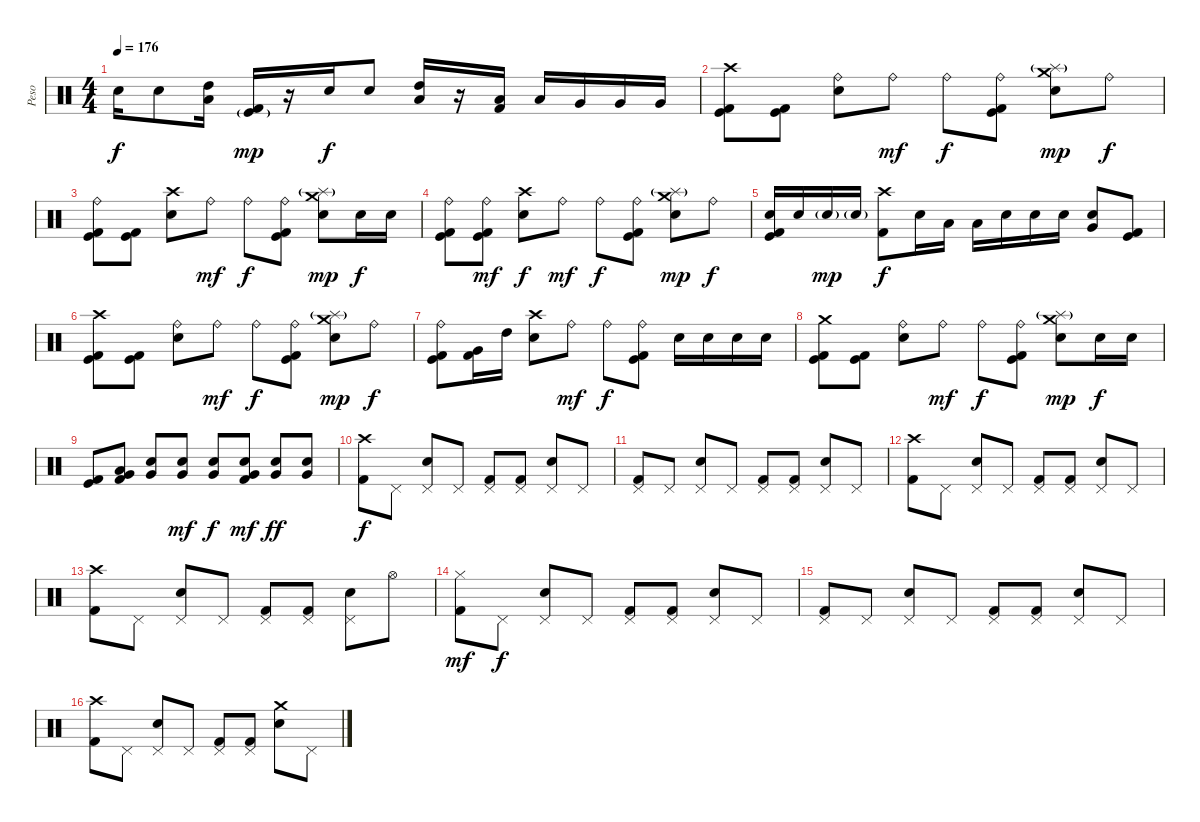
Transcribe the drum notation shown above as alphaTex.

\track ("Peso" "Peso") {instrument percussion}
\staff {score}
\articulation defaults
\ts (4 4)
\tempo 176
\clef neutral
\ks c "Electric Snare (hit)".16{dy f} "Electric Snare (hit)".8
("High Tom (hit)" "Low Tom (hit)").16 ("Kick (hit)"{g} "Kick (hit) 2").16{dy mp} r.16 "Electric Snare (hit)".16{dy f} "Electric Snare (hit)".8 ("High Tom (hit)" "Low Tom (hit)").16 r.16 ("Low Tom (hit)" "Kick (hit) 2").16 "Low Tom (hit)".16 "Very Low Tom (hit)".16 "Very Low Tom (hit)".16 "Very Low Tom (hit)".16 |
("Crash high (hit)" "Kick (hit)" "Kick (hit) 2").8 ("Kick (hit)" "Kick (hit) 2").8 ("Ride (bell)" "Electric Snare (hit)").8 "Ride (bell)".8{dy mf} "Ride (bell)".8{dy f} ("Ride (bell)" "Kick (hit)" "Kick (hit) 2").8 ("Crash medium (hit)" "Splash (hit)"{g} "Electric Snare (hit)").8{dy mp} "Ride (bell)".8{dy f} |
("Ride (bell)" "Kick (hit)" "Kick (hit) 2").8 ("Kick (hit)" "Kick (hit) 2").8 ("Crash high (hit)" "Electric Snare (hit)").8 "Ride (bell)".8{dy mf} "Ride (bell)".8{dy f} ("Ride (bell)" "Kick (hit)" "Kick (hit) 2").8 ("Crash medium (hit)" "Splash (hit)"{g} "Electric Snare (hit)").8{dy mp} "Electric Snare (hit)".16{dy f} "Electric Snare (hit)".16 |
("Ride (bell)" "Kick (hit)" "Kick (hit) 2").8 ("Ride (bell)" "Kick (hit)" "Kick (hit) 2").8{dy mf} ("Crash high (hit)" "Electric Snare (hit)").8{dy f} "Ride (bell)".8{dy mf} "Ride (bell)".8{dy f} ("Ride (bell)" "Kick (hit)" "Kick (hit) 2").8 ("Crash medium (hit)" "Splash (hit)"{g} "Electric Snare (hit)").8{dy mp} "Ride (bell)".8{dy f} |
("Electric Snare (hit)" "Kick (hit)" "Kick (hit) 2").16 "Electric Snare (hit)".16 "Electric Snare (hit)"{g}.16{dy mp} "Electric Snare (hit)"{g}.16 ("Crash high (hit)" "Kick (hit) 2").8{dy f} "Electric Snare (hit)".16 "Low Tom (hit)".16 "Low Tom (hit)".16 "Electric Snare (hit)".16 "Electric Snare (hit)".16 "Electric Snare (hit)".16 ("Very Low Tom (hit)" "Electric Snare (hit)").8 ("Kick (hit)" "Kick (hit) 2").8 |
("Crash high (hit)" "Kick (hit)" "Kick (hit) 2").8 ("Kick (hit)" "Kick (hit) 2").8 ("Ride (bell)" "Electric Snare (hit)").8 "Ride (bell)".8{dy mf} "Ride (bell)".8{dy f} ("Ride (bell)" "Kick (hit)" "Kick (hit) 2").8 ("Crash medium (hit)" "Splash (hit)"{g} "Electric Snare (hit)").8{dy mp} "Ride (bell)".8{dy f} |
("Ride (bell)" "Kick (hit)" "Kick (hit) 2").8 ("Very Low Tom (hit)" "Kick (hit) 2").16 "High Tom (hit)".16 ("Crash high (hit)" "Electric Snare (hit)").8 "Ride (bell)".8{dy mf} "Ride (bell)".8{dy f} ("Ride (bell)" "Kick (hit)" "Kick (hit) 2").8 "Electric Snare (hit)".16 "Electric Snare (hit)".16 "Electric Snare (hit)".16 "Electric Snare (hit)".16 |
("Crash medium (hit)" "Kick (hit)" "Kick (hit) 2").8 ("Kick (hit)" "Kick (hit) 2").8 ("Ride (bell)" "Electric Snare (hit)").8 "Ride (bell)".8{dy mf} "Ride (bell)".8{dy f} ("Ride (bell)" "Kick (hit)" "Kick (hit) 2").8 ("Crash medium (hit)" "Splash (hit)"{g} "Electric Snare (hit)").8{dy mp} "Electric Snare (hit)".16{dy f} "Electric Snare (hit)".16 |
("Kick (hit)" "Kick (hit) 2").8 ("Low Tom (hit)" "Very Low Tom (hit)" "Kick (hit) 2").8 ("Very Low Tom (hit)" "Electric Snare (hit)").8 ("Very Low Tom (hit)" "Electric Snare (hit)").8{dy mf} ("Very Low Tom (hit)" "Electric Snare (hit)").8{dy f} ("Very Low Tom (hit)" "Electric Snare (hit)" "Kick (hit) 2").8{dy mf} ("Very Low Tom (hit)" "Electric Snare (hit)").8{dy ff} ("Very Low Tom (hit)" "Electric Snare (hit)").8 |
("Crash high (hit)" "Kick (hit) 2").8{dy f} "Pedal Hi-Hat (hit)".8 ("Pedal Hi-Hat (hit)" "Electric Snare (hit)").8 "Pedal Hi-Hat (hit)".8 ("Pedal Hi-Hat (hit)" "Kick (hit) 2").8 ("Pedal Hi-Hat (hit)" "Kick (hit) 2").8 ("Pedal Hi-Hat (hit)" "Electric Snare (hit)").8 "Pedal Hi-Hat (hit)".8 |
("Pedal Hi-Hat (hit)" "Kick (hit) 2").8 "Pedal Hi-Hat (hit)".8 ("Pedal Hi-Hat (hit)" "Electric Snare (hit)").8 "Pedal Hi-Hat (hit)".8 ("Pedal Hi-Hat (hit)" "Kick (hit) 2").8 ("Pedal Hi-Hat (hit)" "Kick (hit) 2").8 ("Pedal Hi-Hat (hit)" "Electric Snare (hit)").8 "Pedal Hi-Hat (hit)".8 |
("Crash high (hit)" "Kick (hit) 2").8 "Pedal Hi-Hat (hit)".8 ("Pedal Hi-Hat (hit)" "Electric Snare (hit)").8 "Pedal Hi-Hat (hit)".8 ("Pedal Hi-Hat (hit)" "Kick (hit) 2").8 ("Pedal Hi-Hat (hit)" "Kick (hit) 2").8 ("Pedal Hi-Hat (hit)" "Electric Snare (hit)").8 "Pedal Hi-Hat (hit)".8 |
("Crash high (hit)" "Kick (hit) 2").8 "Pedal Hi-Hat (hit)".8 ("Pedal Hi-Hat (hit)" "Electric Snare (hit)").8 "Pedal Hi-Hat (hit)".8 ("Pedal Hi-Hat (hit)" "Kick (hit) 2").8 ("Pedal Hi-Hat (hit)" "Kick (hit) 2").8 ("Pedal Hi-Hat (hit)" "Electric Snare (hit)").8 "Hi-Hat (open)".8 |
("Hi-Hat (closed)" "Kick (hit) 2").8{dy mf} "Pedal Hi-Hat (hit)".8{dy f} ("Pedal Hi-Hat (hit)" "Electric Snare (hit)").8 "Pedal Hi-Hat (hit)".8 ("Pedal Hi-Hat (hit)" "Kick (hit) 2").8 ("Pedal Hi-Hat (hit)" "Kick (hit) 2").8 ("Pedal Hi-Hat (hit)" "Electric Snare (hit)").8 "Pedal Hi-Hat (hit)".8 |
("Pedal Hi-Hat (hit)" "Kick (hit) 2").8 "Pedal Hi-Hat (hit)".8 ("Pedal Hi-Hat (hit)" "Electric Snare (hit)").8 "Pedal Hi-Hat (hit)".8 ("Pedal Hi-Hat (hit)" "Kick (hit) 2").8 ("Pedal Hi-Hat (hit)" "Kick (hit) 2").8 ("Pedal Hi-Hat (hit)" "Electric Snare (hit)").8 "Pedal Hi-Hat (hit)".8 |
("Crash high (hit)" "Kick (hit) 2").8 "Pedal Hi-Hat (hit)".8 ("Pedal Hi-Hat (hit)" "Electric Snare (hit)").8 "Pedal Hi-Hat (hit)".8 ("Pedal Hi-Hat (hit)" "Kick (hit) 2").8 ("Pedal Hi-Hat (hit)" "Kick (hit) 2").8 ("Crash medium (hit)" "Electric Snare (hit)").8 "Pedal Hi-Hat (hit)".8
